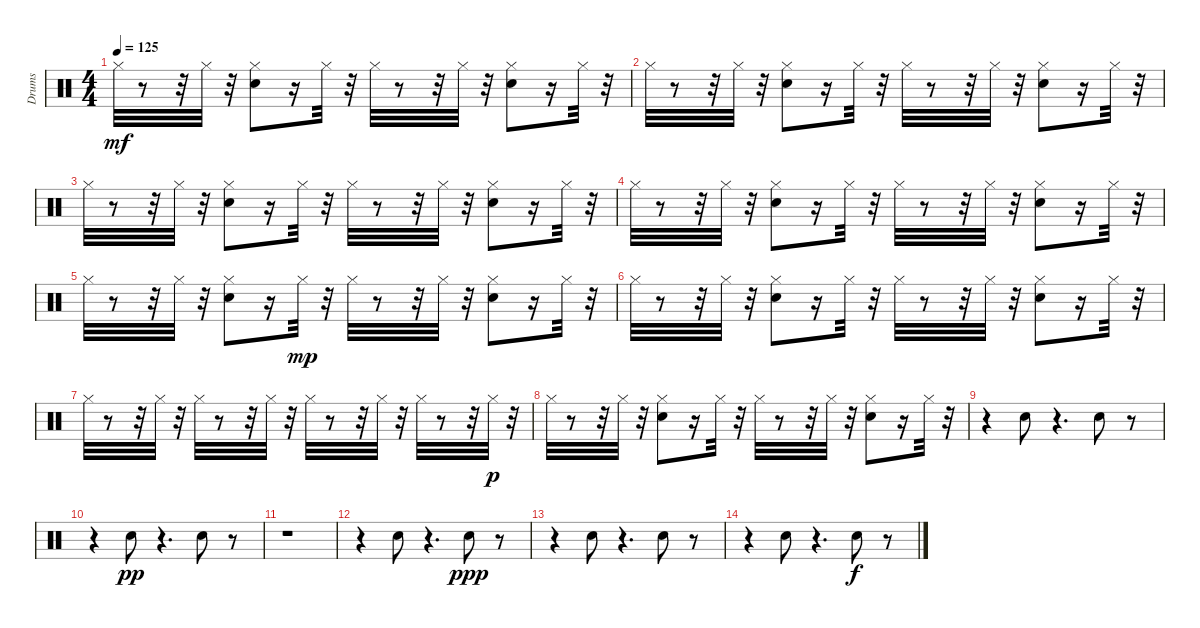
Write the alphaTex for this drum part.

\track ("Drums" "Drums") {instrument percussion}
\staff {score}
\articulation defaults
\ts (4 4)
\tempo 125
\clef neutral
\ks c "Hi-Hat (closed)".32{dy mf}
r.8 r.32 "Hi-Hat (closed)".32 r.32 ("Snare (hit) 2" "Hi-Hat (closed)").8 r.16 "Hi-Hat (closed)".32 r.32 "Hi-Hat (closed)".32 r.8 r.32 "Hi-Hat (closed)".32 r.32 ("Snare (hit) 2" "Hi-Hat (closed)").8 r.16 "Hi-Hat (closed)".32 r.32 |
"Hi-Hat (closed)".32 r.8 r.32 "Hi-Hat (closed)".32 r.32 ("Snare (hit) 2" "Hi-Hat (closed)").8 r.16 "Hi-Hat (closed)".32 r.32 "Hi-Hat (closed)".32 r.8 r.32 "Hi-Hat (closed)".32 r.32 ("Snare (hit) 2" "Hi-Hat (closed)").8 r.16 "Hi-Hat (closed)".32 r.32 |
"Hi-Hat (closed)".32 r.8 r.32 "Hi-Hat (closed)".32 r.32 ("Snare (hit) 2" "Hi-Hat (closed)").8 r.16 "Hi-Hat (closed)".32 r.32 "Hi-Hat (closed)".32 r.8 r.32 "Hi-Hat (closed)".32 r.32 ("Snare (hit) 2" "Hi-Hat (closed)").8 r.16 "Hi-Hat (closed)".32 r.32 |
"Hi-Hat (closed)".32 r.8 r.32 "Hi-Hat (closed)".32 r.32 ("Snare (hit) 2" "Hi-Hat (closed)").8 r.16 "Hi-Hat (closed)".32 r.32 "Hi-Hat (closed)".32 r.8 r.32 "Hi-Hat (closed)".32 r.32 ("Snare (hit) 2" "Hi-Hat (closed)").8 r.16 "Hi-Hat (closed)".32 r.32 |
"Hi-Hat (closed)".32 r.8 r.32 "Hi-Hat (closed)".32 r.32 ("Snare (hit) 2" "Hi-Hat (closed)").8 r.16 "Hi-Hat (closed)".32{dy mp} r.32 "Hi-Hat (closed)".32 r.8 r.32 "Hi-Hat (closed)".32 r.32 ("Snare (hit) 2" "Hi-Hat (closed)").8 r.16 "Hi-Hat (closed)".32 r.32 |
"Hi-Hat (closed)".32 r.8 r.32 "Hi-Hat (closed)".32 r.32 ("Snare (hit) 2" "Hi-Hat (closed)").8 r.16 "Hi-Hat (closed)".32 r.32 "Hi-Hat (closed)".32 r.8 r.32 "Hi-Hat (closed)".32 r.32 ("Snare (hit) 2" "Hi-Hat (closed)").8 r.16 "Hi-Hat (closed)".32 r.32 |
"Hi-Hat (closed)".32 r.8 r.32 "Hi-Hat (closed)".32 r.32 "Hi-Hat (closed)".32 r.8 r.32 "Hi-Hat (closed)".32 r.32 "Hi-Hat (closed)".32 r.8 r.32 "Hi-Hat (closed)".32 r.32 "Hi-Hat (closed)".32 r.8 r.32 "Hi-Hat (closed)".32{dy p} r.32 |
"Hi-Hat (closed)".32 r.8 r.32 "Hi-Hat (closed)".32 r.32 ("Snare (hit) 2" "Hi-Hat (closed)").8 r.16 "Hi-Hat (closed)".32 r.32 "Hi-Hat (closed)".32 r.8 r.32 "Hi-Hat (closed)".32 r.32 ("Snare (hit) 2" "Hi-Hat (closed)").8 r.16 "Hi-Hat (closed)".32 r.32 |
r.4 "Snare (hit) 2".8 r.4{d} "Snare (hit) 2".8 r.8 |
r.4 "Snare (hit) 2".8{dy pp} r.4{d} "Snare (hit) 2".8 r.8 |
r.1 |
r.4 "Snare (hit) 2".8 r.4{d} "Snare (hit) 2".8{dy ppp} r.8 |
r.4 "Snare (hit) 2".8 r.4{d} "Snare (hit) 2".8 r.8 |
r.4 "Snare (hit) 2".8 r.4{d} "Snare (hit) 2".8{dy f} r.8
